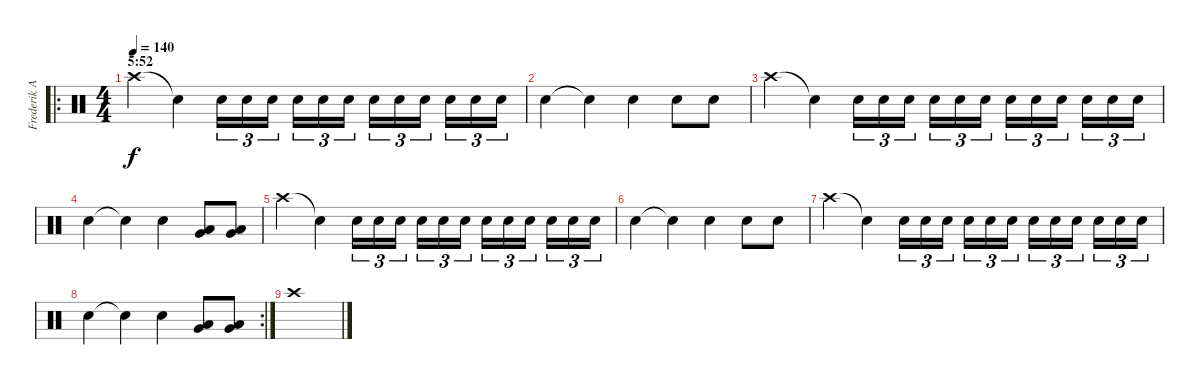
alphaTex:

\track ("Frederik Anderson" "Frederik A") {instrument percussion}
\staff {score}
\articulation defaults
\ro
\ts (4 4)
\section ("" "5:52")
\tempo 140
\clef neutral
\ks c "Crash high (hit)".4{dy f} "Snare (hit)"{t}.4 "Electric Snare (hit)".16{tu (3 2)} "Electric Snare (hit)".16{tu (3 2)} "Electric Snare (hit)".16{tu (3 2)} "Electric Snare (hit)".16{tu (3 2)} "Electric Snare (hit)".16{tu (3 2)} "Electric Snare (hit)".16{tu (3 2)} "Electric Snare (hit)".16{tu (3 2)} "Electric Snare (hit)".16{tu (3 2)} "Electric Snare (hit)".16{tu (3 2)} "Electric Snare (hit)".16{tu (3 2)} "Electric Snare (hit)".16{tu (3 2)} "Electric Snare (hit)".16{tu (3 2)}
|
"Electric Snare (hit)".4 "Electric Snare (hit)"{t}.4 "Electric Snare (hit)".4 "Electric Snare (hit)".8 "Electric Snare (hit)".8 |
"Crash high (hit)".4 "Snare (hit)"{t}.4 "Electric Snare (hit)".16{tu (3 2)} "Electric Snare (hit)".16{tu (3 2)} "Electric Snare (hit)".16{tu (3 2)} "Electric Snare (hit)".16{tu (3 2)} "Electric Snare (hit)".16{tu (3 2)} "Electric Snare (hit)".16{tu (3 2)} "Electric Snare (hit)".16{tu (3 2)} "Electric Snare (hit)".16{tu (3 2)} "Electric Snare (hit)".16{tu (3 2)} "Electric Snare (hit)".16{tu (3 2)} "Electric Snare (hit)".16{tu (3 2)} "Electric Snare (hit)".16{tu (3 2)} |
"Electric Snare (hit)".4 "Electric Snare (hit)"{t}.4 "Electric Snare (hit)".4 ("Low Tom (hit)" "Very Low Tom (hit)").8 ("Very Low Tom (hit)" "Low Floor Tom (hit)").8 |
"Crash high (hit)".4 "Snare (hit)"{t}.4 "Electric Snare (hit)".16{tu (3 2)} "Electric Snare (hit)".16{tu (3 2)} "Electric Snare (hit)".16{tu (3 2)} "Electric Snare (hit)".16{tu (3 2)} "Electric Snare (hit)".16{tu (3 2)} "Electric Snare (hit)".16{tu (3 2)} "Electric Snare (hit)".16{tu (3 2)} "Electric Snare (hit)".16{tu (3 2)} "Electric Snare (hit)".16{tu (3 2)} "Electric Snare (hit)".16{tu (3 2)} "Electric Snare (hit)".16{tu (3 2)} "Electric Snare (hit)".16{tu (3 2)} |
"Electric Snare (hit)".4 "Electric Snare (hit)"{t}.4 "Electric Snare (hit)".4 "Electric Snare (hit)".8 "Electric Snare (hit)".8 |
"Crash high (hit)".4 "Snare (hit)"{t}.4 "Electric Snare (hit)".16{tu (3 2)} "Electric Snare (hit)".16{tu (3 2)} "Electric Snare (hit)".16{tu (3 2)} "Electric Snare (hit)".16{tu (3 2)} "Electric Snare (hit)".16{tu (3 2)} "Electric Snare (hit)".16{tu (3 2)} "Electric Snare (hit)".16{tu (3 2)} "Electric Snare (hit)".16{tu (3 2)} "Electric Snare (hit)".16{tu (3 2)} "Electric Snare (hit)".16{tu (3 2)} "Electric Snare (hit)".16{tu (3 2)} "Electric Snare (hit)".16{tu (3 2)} |
\rc 2 "Electric Snare (hit)".4 "Electric Snare (hit)"{t}.4 "Electric Snare (hit)".4
("Low Tom (hit)" "Very Low Tom (hit)").8 ("Very Low Tom (hit)" "Low Floor Tom (hit)").8 |
"Crash high (hit)".1
